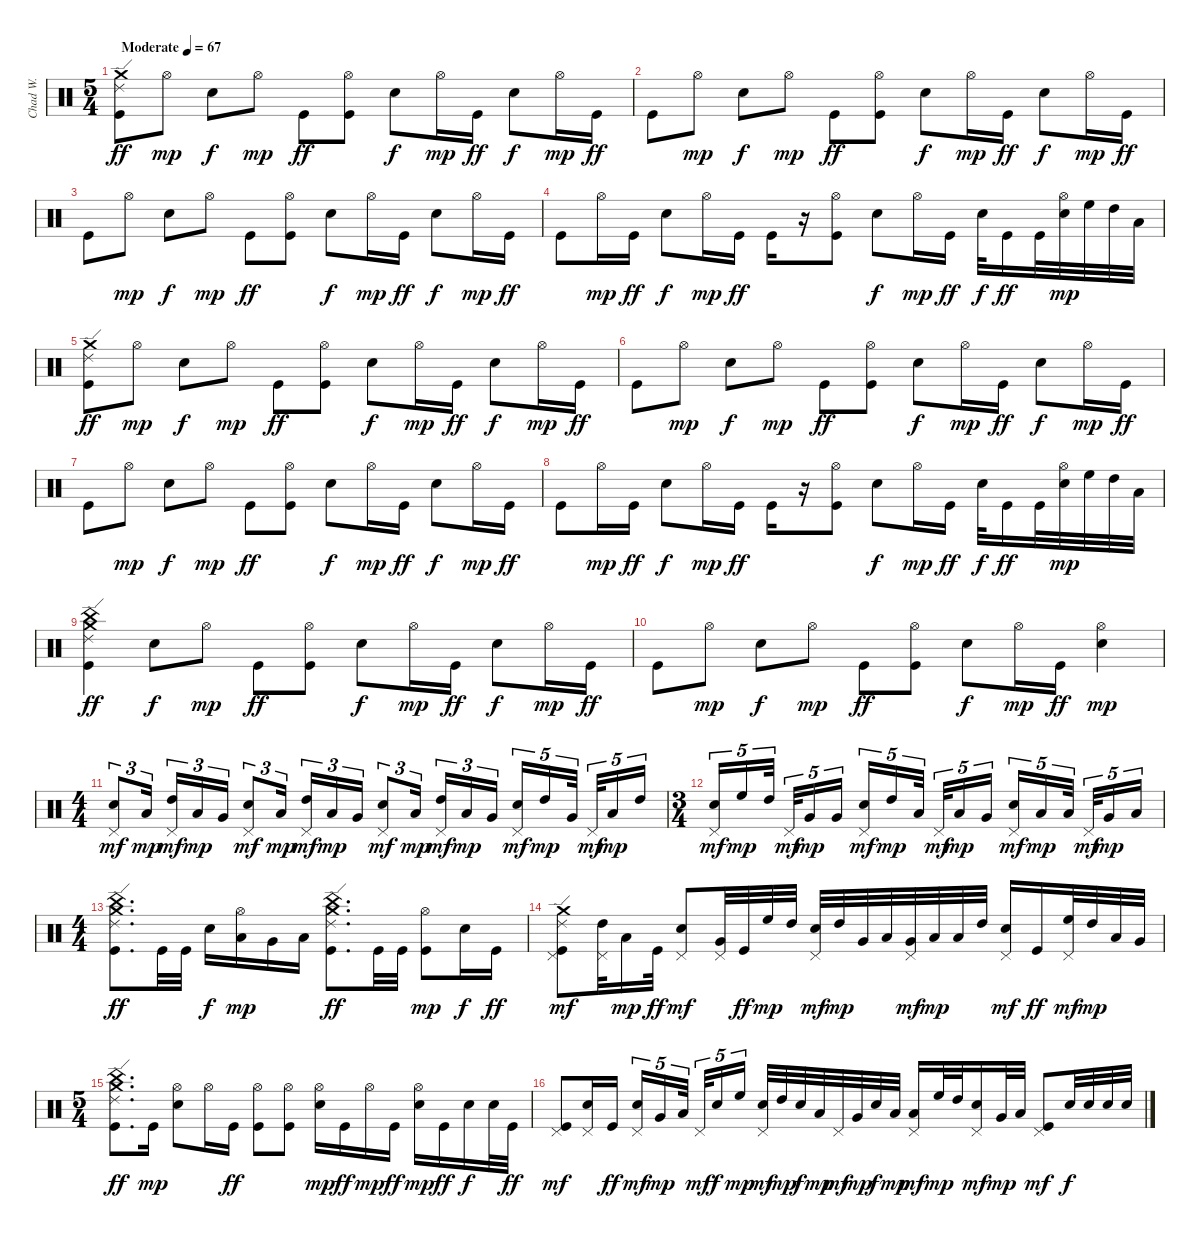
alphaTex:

\track ("Chad W." "Chad W.") {instrument percussion}
\staff {score}
\articulation defaults
\ts (5 4)
\tempo (67 "Moderate")
\clef neutral
\ks c
("Crash medium (hit)" "Ride (edge) 2" "Kick (hit)").8{dy ff} "Hi-Hat (open)".8{dy mp} "Snare (hit) 2".8{dy f} "Hi-Hat (open)".8{dy mp} "Kick (hit)".8{dy ff} ("Hi-Hat (open)" "Kick (hit)").8 "Snare (hit) 2".8{dy f} "Hi-Hat (open)".16{dy mp} "Kick (hit)".16{dy ff} "Snare (hit) 2".8{dy f} "Hi-Hat (open)".16{dy mp} "Kick (hit)".16{dy ff} |
"Kick (hit)".8 "Hi-Hat (open)".8{dy mp} "Snare (hit) 2".8{dy f} "Hi-Hat (open)".8{dy mp} "Kick (hit)".8{dy ff} ("Hi-Hat (open)" "Kick (hit)").8 "Snare (hit) 2".8{dy f} "Hi-Hat (open)".16{dy mp} "Kick (hit)".16{dy ff} "Snare (hit) 2".8{dy f} "Hi-Hat (open)".16{dy mp} "Kick (hit)".16{dy ff} |
"Kick (hit)".8 "Hi-Hat (open)".8{dy mp} "Snare (hit) 2".8{dy f} "Hi-Hat (open)".8{dy mp} "Kick (hit)".8{dy ff} ("Hi-Hat (open)" "Kick (hit)").8 "Snare (hit) 2".8{dy f} "Hi-Hat (open)".16{dy mp} "Kick (hit)".16{dy ff} "Snare (hit) 2".8{dy f} "Hi-Hat (open)".16{dy mp} "Kick (hit)".16{dy ff} |
"Kick (hit)".8 "Hi-Hat (open)".16{dy mp} "Kick (hit)".16{dy ff} "Snare (hit) 2".8{dy f} "Hi-Hat (open)".16{dy mp} "Kick (hit)".16{dy ff} "Kick (hit)".16 r.16 ("Hi-Hat (open)" "Kick (hit)").8 "Snare (hit) 2".8{dy f} "Hi-Hat (open)".16{dy mp} "Kick (hit)".16{dy ff} "Snare (hit) 2".32{dy f} "Kick (hit)".16{dy ff} "Kick (hit)".32 ("Hi-Hat (open)" "Snare (hit) 2").32{dy mp} "High Floor Tom (hit)".32 "High Tom (hit)".32 "Low Tom (hit)".32 |
("Crash medium (hit)" "Ride (edge) 2" "Kick (hit)").8{dy ff} "Hi-Hat (open)".8{dy mp} "Snare (hit) 2".8{dy f} "Hi-Hat (open)".8{dy mp} "Kick (hit)".8{dy ff} ("Hi-Hat (open)" "Kick (hit)").8 "Snare (hit) 2".8{dy f} "Hi-Hat (open)".16{dy mp} "Kick (hit)".16{dy ff} "Snare (hit) 2".8{dy f} "Hi-Hat (open)".16{dy mp} "Kick (hit)".16{dy ff} |
"Kick (hit)".8 "Hi-Hat (open)".8{dy mp} "Snare (hit) 2".8{dy f} "Hi-Hat (open)".8{dy mp} "Kick (hit)".8{dy ff} ("Hi-Hat (open)" "Kick (hit)").8 "Snare (hit) 2".8{dy f} "Hi-Hat (open)".16{dy mp} "Kick (hit)".16{dy ff} "Snare (hit) 2".8{dy f} "Hi-Hat (open)".16{dy mp} "Kick (hit)".16{dy ff} |
"Kick (hit)".8 "Hi-Hat (open)".8{dy mp} "Snare (hit) 2".8{dy f} "Hi-Hat (open)".8{dy mp} "Kick (hit)".8{dy ff} ("Hi-Hat (open)" "Kick (hit)").8 "Snare (hit) 2".8{dy f} "Hi-Hat (open)".16{dy mp} "Kick (hit)".16{dy ff} "Snare (hit) 2".8{dy f} "Hi-Hat (open)".16{dy mp} "Kick (hit)".16{dy ff} |
"Kick (hit)".8 "Hi-Hat (open)".16{dy mp} "Kick (hit)".16{dy ff} "Snare (hit) 2".8{dy f} "Hi-Hat (open)".16{dy mp} "Kick (hit)".16{dy ff} "Kick (hit)".16 r.16 ("Hi-Hat (open)" "Kick (hit)").8 "Snare (hit) 2".8{dy f} "Hi-Hat (open)".16{dy mp} "Kick (hit)".16{dy ff} "Snare (hit) 2".32{dy f} "Kick (hit)".16{dy ff} "Kick (hit)".32 ("Hi-Hat (open)" "Snare (hit) 2").32{dy mp} "High Floor Tom (hit)".32 "High Tom (hit)".32 "Low Tom (hit)".32 |
("Crash medium (hit)" "China (hit)" "Ride (edge) 2" "Kick (hit)").4{dy ff} "Snare (hit) 2".8{dy f} "Hi-Hat (open)".8{dy mp} "Kick (hit)".8{dy ff} ("Hi-Hat (open)" "Kick (hit)").8 "Snare (hit) 2".8{dy f} "Hi-Hat (open)".16{dy mp} "Kick (hit)".16{dy ff} "Snare (hit) 2".8{dy f} "Hi-Hat (open)".16{dy mp} "Kick (hit)".16{dy ff} |
"Kick (hit)".8 "Hi-Hat (open)".8{dy mp} "Snare (hit) 2".8{dy f} "Hi-Hat (open)".8{dy mp} "Kick (hit)".8{dy ff} ("Hi-Hat (open)" "Kick (hit)").8 "Snare (hit) 2".8{dy f} "Hi-Hat (open)".16{dy mp} "Kick (hit)".16{dy ff} ("Hi-Hat (open)" "Snare (hit) 2").4{dy mp} |
\ts (4 4)
("Snare (hit) 2" "Pedal Hi-Hat (hit)").8{tu (3 2) dy mf} "Low Tom (hit)".16{tu (3 2) dy mp beam splitsecondary} ("High Tom (hit)" "Pedal Hi-Hat (hit)").16{tu (3 2) dy mf} "Low Tom (hit)".16{tu (3 2) dy mp} "Very Low Tom (hit)".16{tu (3 2)} ("Snare (hit) 2" "Pedal Hi-Hat (hit)").8{tu (3 2) dy mf} "Low Tom (hit)".16{tu (3 2) dy mp beam splitsecondary} ("High Tom (hit)" "Pedal Hi-Hat (hit)").16{tu (3 2) dy mf} "Low Tom (hit)".16{tu (3 2) dy mp} "Very Low Tom (hit)".16{tu (3 2)} ("Snare (hit) 2" "Pedal Hi-Hat (hit)").8{tu (3 2) dy mf} "Low Tom (hit)".16{tu (3 2) dy mp beam splitsecondary} ("High Tom (hit)" "Pedal Hi-Hat (hit)").16{tu (3 2) dy mf} "Low Tom (hit)".16{tu (3 2) dy mp} "Very Low Tom (hit)".16{tu (3 2)} ("Snare (hit) 2" "Pedal Hi-Hat (hit)").16{tu (5 4) dy mf} "High Tom (hit)".16{tu (5 4) dy mp} "Very Low Tom (hit)".32{tu (5 4) beam splitsecondary} "Pedal Hi-Hat (hit)".32{tu (5 4) dy mf} "Low Floor Tom (hit)".16{tu (5 4) dy mp} "High Tom (hit)".16{tu (5 4)} |
\ts (3 4)
("Snare (hit) 2" "Pedal Hi-Hat (hit)").16{tu (5 4) dy mf} "High Floor Tom (hit)".16{tu (5 4) dy mp} "High Tom (hit)".32{tu (5 4) beam splitsecondary} "Pedal Hi-Hat (hit)".32{tu (5 4) dy mf} "Very Low Tom (hit)".16{tu (5 4) dy mp} "Very Low Tom (hit)".16{tu (5 4)} ("Snare (hit) 2" "Pedal Hi-Hat (hit)").16{tu (5 4) dy mf} "High Tom (hit)".16{tu (5 4) dy mp} "Low Tom (hit)".32{tu (5 4) beam splitsecondary} "Pedal Hi-Hat (hit)".32{tu (5 4) dy mf} "Low Tom (hit)".16{tu (5 4) dy mp} "Very Low Tom (hit)".16{tu (5 4)} ("Snare (hit) 2" "Pedal Hi-Hat (hit)").16{tu (5 4) dy mf} "Low Tom (hit)".16{tu (5 4) dy mp} "Low Tom (hit)".32{tu (5 4) beam splitsecondary} "Pedal Hi-Hat (hit)".32{tu (5 4) dy mf} "Very Low Tom (hit)".16{tu (5 4) dy mp} "Low Floor Tom (hit)".16{tu (5 4)} |
\ts (4 4)
("Crash medium (hit)" "China (hit)" "Ride (edge) 2" "Kick (hit)").8{d dy ff} "Kick (hit)".32 "Kick (hit)".32 "Snare (hit) 2".16{dy f} ("Low Tom (hit)" "Hi-Hat (open)").16{dy mp} "Very Low Tom (hit)".16 "Low Floor Tom (hit)".16 ("Crash medium (hit)" "China (hit)" "Ride (edge) 2" "Kick (hit)").8{d dy ff} "Kick (hit)".32 "Kick (hit)".32 ("Kick (hit)" "Hi-Hat (open)").8{dy mp} "Snare (hit) 2".16{dy f} "Kick (hit)".16{dy ff} |
("Kick (hit)" "Crash medium (hit)" "Ride (edge) 2" "Pedal Hi-Hat (hit)").8{dy mf} ("High Tom (hit)" "Pedal Hi-Hat (hit)").32 "Low Tom (hit)".16{dy mp} "Kick (hit)".32{dy ff} ("Snare (hit) 2" "Pedal Hi-Hat (hit)").8{dy mf} ("Very Low Tom (hit)" "Pedal Hi-Hat (hit)").32 "Kick (hit)".32{dy ff} "High Floor Tom (hit)".32{dy mp} "High Tom (hit)".32 ("Snare (hit) 2" "Pedal Hi-Hat (hit)").32{dy mf} "High Tom (hit)".32{dy mp} "Very Low Tom (hit)".32 "Low Tom (hit)".32 ("Very Low Tom (hit)" "Pedal Hi-Hat (hit)").32{dy mf} "Low Floor Tom (hit)".32{dy mp} "Low Tom (hit)".32 "High Tom (hit)".32 ("Snare (hit) 2" "Pedal Hi-Hat (hit)").16{dy mf} "Kick (hit)".16{dy ff} ("High Floor Tom (hit)" "Pedal Hi-Hat (hit)").32{dy mf} "High Tom (hit)".32{dy mp} "Low Tom (hit)".32 "Very Low Tom (hit)".32 |
\ts (5 4)
("Crash medium (hit)" "China (hit)" "Ride (edge) 2" "Kick (hit)").8{d dy ff} "Kick (hit)".16{dy mp} ("Hi-Hat (open)" "Snare (hit) 2").8 "Hi-Hat (open)".16 "Kick (hit)".16{dy ff} ("Hi-Hat (open)" "Kick (hit)").8 ("Hi-Hat (open)" "Kick (hit)").8 ("Hi-Hat (open)" "Snare (hit) 2").16{dy mp} "Kick (hit)".16{dy ff} "Hi-Hat (open)".16{dy mp} "Kick (hit)".16{dy ff} ("Hi-Hat (open)" "Snare (hit) 2").16{dy mp} "Kick (hit)".16{dy ff} "Snare (hit) 2".16{dy f} "Snare (hit) 2".32 "Kick (hit)".32{dy ff} |
("Kick (hit)" "Pedal Hi-Hat (hit)").8{dy mf} ("Snare (hit) 2" "Pedal Hi-Hat (hit)").16 "Kick (hit)".16{dy ff} ("Snare (hit) 2" "Pedal Hi-Hat (hit)").16{tu (5 4) dy mf} "Very Low Tom (hit)".16{tu (5 4) dy mp} "Low Tom (hit)".32{tu (5 4) beam splitsecondary} "Pedal Hi-Hat (hit)".32{tu (5 4) dy mf} "Snare (hit) 2".16{tu (5 4) dy f} "High Floor Tom (hit)".16{tu (5 4) dy mp} ("Snare (hit) 2" "Pedal Hi-Hat (hit)").32{dy mf} "High Tom (hit)".32{dy mp} "Snare (hit) 2".32{dy f} "Low Tom (hit)".32{dy mp} "Pedal Hi-Hat (hit)".32{dy mf} "Very Low Tom (hit)".32{dy mp} "Snare (hit) 2".32{dy f} "Low Floor Tom (hit)".32{dy mp} ("Low Tom (hit)" "Pedal Hi-Hat (hit)").16{dy mf} "High Floor Tom (hit)".32{dy mp} "High Tom (hit)".32 ("Snare (hit) 2" "Pedal Hi-Hat (hit)").16{dy mf} "Very Low Tom (hit)".32{dy mp} "Low Floor Tom (hit)".32 ("Kick (hit)" "Pedal Hi-Hat (hit)").8{dy mf} "Snare (hit) 2".32{dy f} "Snare (hit) 2".32 "Snare (hit) 2".32 "Snare (hit) 2".32
